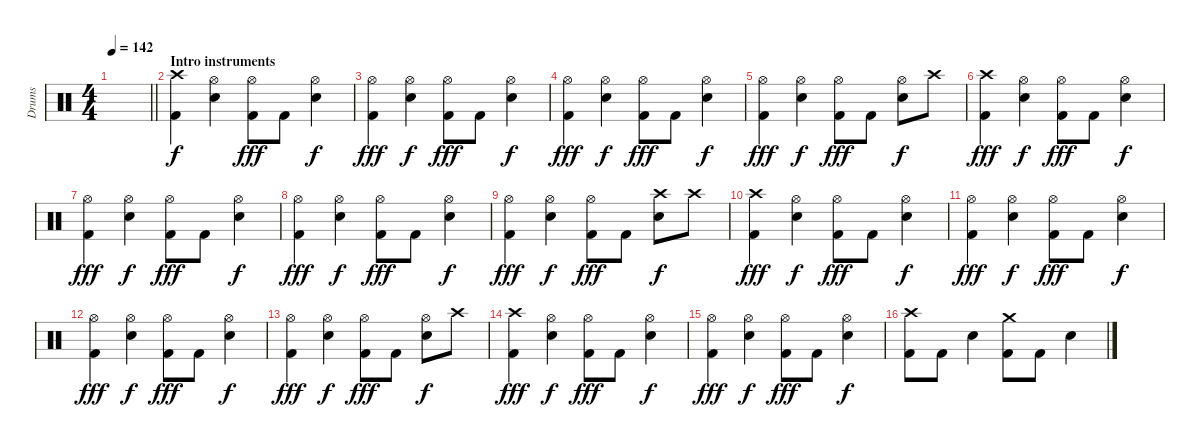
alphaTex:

\track ("Drums" "Drums") {instrument percussion}
\staff {score}
\articulation defaults
\ts (4 4)
\tempo 142
\clef neutral
\barLineRight lightlight
\ks c
|
\section ("" "Intro instruments")
("Crash high (hit)" "Kick (hit) 2").4 ("Hi-Hat (open)" "Snare (hit) 2").4{dy f} ("Hi-Hat (open)" "Kick (hit) 2").8{dy fff} "Kick (hit) 2".8 ("Hi-Hat (open)" "Snare (hit) 2").4{dy f} |
("Hi-Hat (open)" "Kick (hit) 2").4{dy fff} ("Hi-Hat (open)" "Snare (hit) 2").4{dy f} ("Hi-Hat (open)" "Kick (hit) 2").8{dy fff} "Kick (hit) 2".8 ("Hi-Hat (open)" "Snare (hit) 2").4{dy f} |
("Hi-Hat (open)" "Kick (hit) 2").4{dy fff} ("Hi-Hat (open)" "Snare (hit) 2").4{dy f} ("Hi-Hat (open)" "Kick (hit) 2").8{dy fff} "Kick (hit) 2".8 ("Hi-Hat (open)" "Snare (hit) 2").4{dy f} |
("Hi-Hat (open)" "Kick (hit) 2").4{dy fff} ("Hi-Hat (open)" "Snare (hit) 2").4{dy f} ("Hi-Hat (open)" "Kick (hit) 2").8{dy fff} "Kick (hit) 2".8 ("Hi-Hat (open)" "Snare (hit) 2").8{dy f} "Crash high (hit)".8 |
("Crash high (hit)" "Kick (hit) 2").4{dy fff} ("Hi-Hat (open)" "Snare (hit) 2").4{dy f} ("Hi-Hat (open)" "Kick (hit) 2").8{dy fff} "Kick (hit) 2".8 ("Hi-Hat (open)" "Snare (hit) 2").4{dy f} |
("Hi-Hat (open)" "Kick (hit) 2").4{dy fff} ("Hi-Hat (open)" "Snare (hit) 2").4{dy f} ("Hi-Hat (open)" "Kick (hit) 2").8{dy fff} "Kick (hit) 2".8 ("Hi-Hat (open)" "Snare (hit) 2").4{dy f} |
("Hi-Hat (open)" "Kick (hit) 2").4{dy fff} ("Hi-Hat (open)" "Snare (hit) 2").4{dy f} ("Hi-Hat (open)" "Kick (hit) 2").8{dy fff} "Kick (hit) 2".8 ("Hi-Hat (open)" "Snare (hit) 2").4{dy f} |
("Hi-Hat (open)" "Kick (hit) 2").4{dy fff} ("Hi-Hat (open)" "Snare (hit) 2").4{dy f} ("Hi-Hat (open)" "Kick (hit) 2").8{dy fff} "Kick (hit) 2".8 ("Crash high (hit)" "Snare (hit) 2").8{dy f} "Crash high (hit)".8 |
("Crash high (hit)" "Kick (hit) 2").4{dy fff} ("Hi-Hat (open)" "Snare (hit) 2").4{dy f} ("Hi-Hat (open)" "Kick (hit) 2").8{dy fff} "Kick (hit) 2".8 ("Hi-Hat (open)" "Snare (hit) 2").4{dy f} |
("Hi-Hat (open)" "Kick (hit) 2").4{dy fff} ("Hi-Hat (open)" "Snare (hit) 2").4{dy f} ("Hi-Hat (open)" "Kick (hit) 2").8{dy fff} "Kick (hit) 2".8 ("Hi-Hat (open)" "Snare (hit) 2").4{dy f} |
("Hi-Hat (open)" "Kick (hit) 2").4{dy fff} ("Hi-Hat (open)" "Snare (hit) 2").4{dy f} ("Hi-Hat (open)" "Kick (hit) 2").8{dy fff} "Kick (hit) 2".8 ("Hi-Hat (open)" "Snare (hit) 2").4{dy f} |
("Hi-Hat (open)" "Kick (hit) 2").4{dy fff} ("Hi-Hat (open)" "Snare (hit) 2").4{dy f} ("Hi-Hat (open)" "Kick (hit) 2").8{dy fff} "Kick (hit) 2".8 ("Hi-Hat (open)" "Snare (hit) 2").8{dy f} "Crash high (hit)".8 |
("Crash high (hit)" "Kick (hit) 2").4{dy fff} ("Hi-Hat (open)" "Snare (hit) 2").4{dy f} ("Hi-Hat (open)" "Kick (hit) 2").8{dy fff} "Kick (hit) 2".8 ("Hi-Hat (open)" "Snare (hit) 2").4{dy f} |
("Hi-Hat (open)" "Kick (hit) 2").4{dy fff} ("Hi-Hat (open)" "Snare (hit) 2").4{dy f} ("Hi-Hat (open)" "Kick (hit) 2").8{dy fff} "Kick (hit) 2".8 ("Hi-Hat (open)" "Snare (hit) 2").4{dy f} |
("Crash high (hit)" "Kick (hit) 2").8 "Kick (hit) 2".8 "Snare (hit) 2".4 ("Crash medium (hit)" "Kick (hit) 2").8 "Kick (hit) 2".8 "Snare (hit) 2".4
